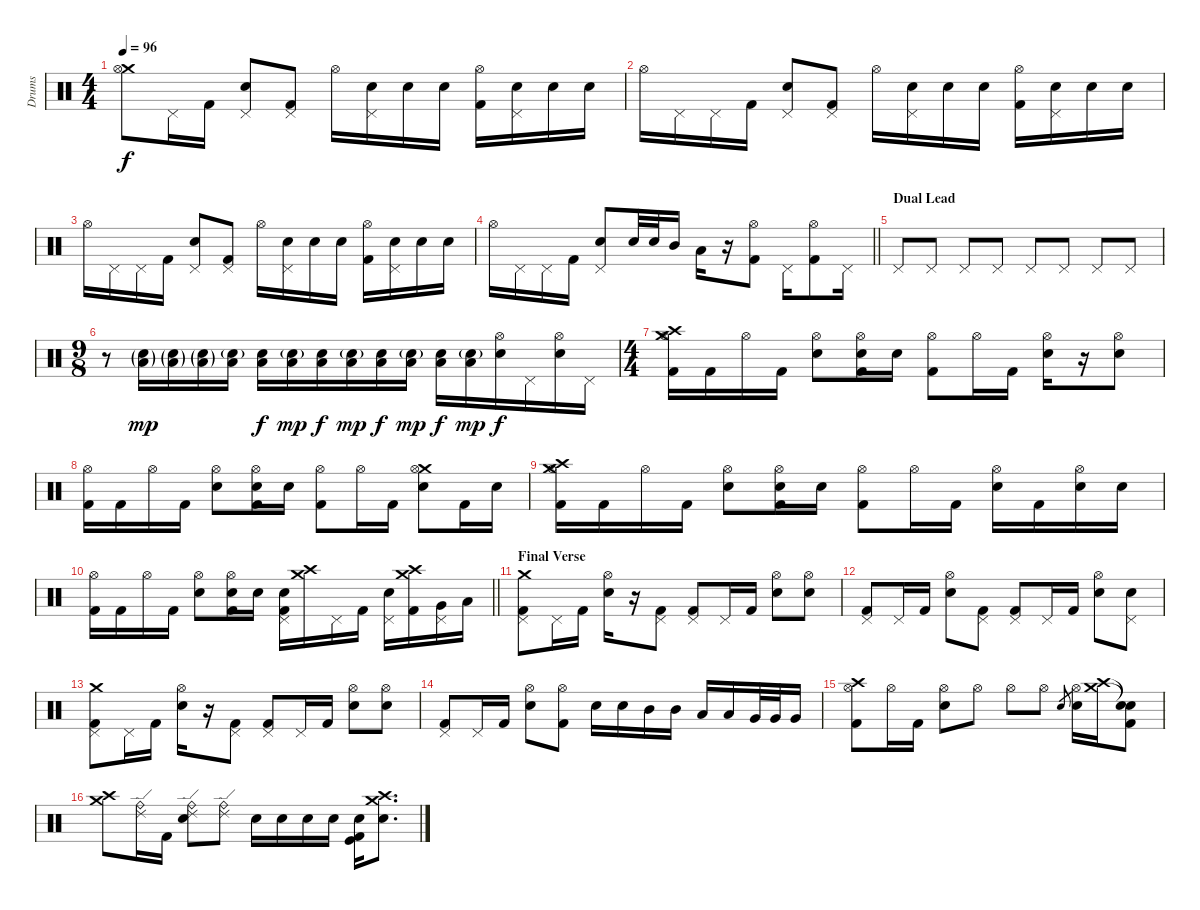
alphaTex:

\track ("Drums" "Drums") {instrument percussion}
\staff {score}
\articulation defaults
\ts (4 4)
\tempo 96
\clef neutral
\ks c
("Crash medium (hit)" "Hi-Hat (open)").8{dy f} "Pedal Hi-Hat (hit)".16 "Kick (hit) 2".16 ("Electric Snare (hit)" "Pedal Hi-Hat (hit)").8 ("Pedal Hi-Hat (hit)" "Kick (hit) 2").8 "Hi-Hat (open)".16 ("Electric Snare (hit)" "Pedal Hi-Hat (hit)").16 "Electric Snare (hit)".16 "Electric Snare (hit)".16 ("Hi-Hat (open)" "Kick (hit) 2").16 ("Electric Snare (hit)" "Pedal Hi-Hat (hit)").16 "Electric Snare (hit)".16 "Electric Snare (hit)".16 |
"Hi-Hat (open)".16 "Pedal Hi-Hat (hit)".16 "Pedal Hi-Hat (hit)".16 "Kick (hit) 2".16 ("Electric Snare (hit)" "Pedal Hi-Hat (hit)").8 ("Pedal Hi-Hat (hit)" "Kick (hit) 2").8 "Hi-Hat (open)".16 ("Electric Snare (hit)" "Pedal Hi-Hat (hit)").16 "Electric Snare (hit)".16 "Electric Snare (hit)".16 ("Hi-Hat (open)" "Kick (hit) 2").16 ("Electric Snare (hit)" "Pedal Hi-Hat (hit)").16 "Electric Snare (hit)".16 "Electric Snare (hit)".16 |
"Hi-Hat (open)".16 "Pedal Hi-Hat (hit)".16 "Pedal Hi-Hat (hit)".16 "Kick (hit) 2".16 ("Electric Snare (hit)" "Pedal Hi-Hat (hit)").8 ("Pedal Hi-Hat (hit)" "Kick (hit) 2").8 "Hi-Hat (open)".16 ("Electric Snare (hit)" "Pedal Hi-Hat (hit)").16 "Electric Snare (hit)".16 "Electric Snare (hit)".16 ("Hi-Hat (open)" "Kick (hit) 2").16 ("Electric Snare (hit)" "Pedal Hi-Hat (hit)").16 "Electric Snare (hit)".16 "Electric Snare (hit)".16 |
\barLineRight lightlight "Hi-Hat (open)".16 "Pedal Hi-Hat (hit)".16 "Pedal Hi-Hat (hit)".16 "Kick (hit) 2".16
("Electric Snare (hit)" "Pedal Hi-Hat (hit)").8 "Electric Snare (hit)".32 "Electric Snare (hit)".32 "Mid Tom (hit)".16 "Low Tom (hit)".16 r.16 ("Hi-Hat (open)" "Kick (hit) 2").8 "Pedal Hi-Hat (hit)".16 ("Hi-Hat (open)" "Kick (hit) 2").8 "Pedal Hi-Hat (hit)".16 |
\section ("" "Dual Lead")
"Pedal Hi-Hat (hit)".8 "Pedal Hi-Hat (hit)".8 "Pedal Hi-Hat (hit)".8 "Pedal Hi-Hat (hit)".8 "Pedal Hi-Hat (hit)".8 "Pedal Hi-Hat (hit)".8 "Pedal Hi-Hat (hit)".8 "Pedal Hi-Hat (hit)".8 |
\ts (9 8)
r.8 ("Electric Snare (hit)"{g} "Low Floor Tom (hit)"{g}).16{dy mp} ("Electric Snare (hit)"{g} "Low Floor Tom (hit)"{g}).16 ("Electric Snare (hit)"{g} "Low Floor Tom (hit)"{g}).16 ("Electric Snare (hit)"{g} "Low Floor Tom (hit)").16 ("Electric Snare (hit)" "Low Floor Tom (hit)").16{dy f} ("Electric Snare (hit)"{g} "Low Floor Tom (hit)").16{dy mp} ("Electric Snare (hit)" "Low Floor Tom (hit)").16{dy f} ("Electric Snare (hit)"{g} "Low Floor Tom (hit)").16{dy mp} ("Electric Snare (hit)" "Low Floor Tom (hit)").16{dy f} ("Electric Snare (hit)"{g} "Low Floor Tom (hit)").16{dy mp} ("Electric Snare (hit)" "Low Floor Tom (hit)").16{dy f} ("Electric Snare (hit)"{g} "Low Floor Tom (hit)").16{dy mp} ("Electric Snare (hit)" "Hi-Hat (open)").16{dy f} "Pedal Hi-Hat (hit)".16 ("Electric Snare (hit)" "Hi-Hat (open)").16 "Pedal Hi-Hat (hit)".16 |
\ts (4 4)
("Crash medium (hit)" "Crash high (hit)" "Hi-Hat (open)" "Kick (hit) 2").16 "Kick (hit) 2".16 "Hi-Hat (open)".16 "Kick (hit) 2".16 ("Hi-Hat (open)" "Electric Snare (hit)").8 ("Hi-Hat (open)" "Electric Snare (hit)" "Kick (hit) 2").16 "Electric Snare (hit)".16 ("Hi-Hat (open)" "Kick (hit) 2").8 "Hi-Hat (open)".16 "Kick (hit) 2".16 ("Hi-Hat (open)" "Electric Snare (hit)").16 r.16 ("Hi-Hat (open)" "Electric Snare (hit)").8 |
("Hi-Hat (open)" "Kick (hit) 2").16 "Kick (hit) 2".16 "Hi-Hat (open)".16 "Kick (hit) 2".16 ("Hi-Hat (open)" "Electric Snare (hit)").8 ("Hi-Hat (open)" "Electric Snare (hit)" "Kick (hit) 2").16 "Electric Snare (hit)".16 ("Hi-Hat (open)" "Kick (hit) 2").8 "Hi-Hat (open)".16 "Kick (hit) 2".16 ("Crash medium (hit)" "Hi-Hat (open)" "Electric Snare (hit)").8 "Kick (hit) 2".16 "Electric Snare (hit)".16 |
("Crash high (hit)" "Crash medium (hit)" "Hi-Hat (open)" "Kick (hit) 2").16 "Kick (hit) 2".16 "Hi-Hat (open)".16 "Kick (hit) 2".16 ("Hi-Hat (open)" "Electric Snare (hit)").8 ("Hi-Hat (open)" "Electric Snare (hit)" "Kick (hit) 2").16 "Electric Snare (hit)".16 ("Hi-Hat (open)" "Kick (hit) 2").8 "Hi-Hat (open)".16 "Kick (hit) 2".16 ("Hi-Hat (open)" "Electric Snare (hit)").16 "Kick (hit) 2".16 ("Hi-Hat (open)" "Electric Snare (hit)").16 "Electric Snare (hit)".16 |
\barLineRight lightlight
("Hi-Hat (open)" "Kick (hit) 2").16 "Kick (hit) 2".16 "Hi-Hat (open)".16 "Kick (hit) 2".16 ("Hi-Hat (open)" "Electric Snare (hit)").8 ("Hi-Hat (open)" "Electric Snare (hit)" "Kick (hit) 2").16 "Electric Snare (hit)".16 ("Pedal Hi-Hat (hit)" "Electric Snare (hit)" "Kick (hit) 2").16 ("Crash medium (hit)" "Crash high (hit)").16 "Pedal Hi-Hat (hit)".16 "Kick (hit) 2".16 ("Pedal Hi-Hat (hit)" "Electric Snare (hit)").16 ("Crash high (hit)" "Crash medium (hit)" "Kick (hit) 2").16 ("Pedal Hi-Hat (hit)" "Very Low Tom (hit)").16 "Low Floor Tom (hit)".16 |
\section ("" "Final Verse")
("Crash medium (hit)" "Pedal Hi-Hat (hit)" "Kick (hit) 2").8 "Pedal Hi-Hat (hit)".16 "Kick (hit) 2".16 ("Electric Snare (hit)" "Hi-Hat (open)").16 r.16 ("Pedal Hi-Hat (hit)" "Kick (hit) 2").8 ("Pedal Hi-Hat (hit)" "Kick (hit) 2").8 "Pedal Hi-Hat (hit)".16 "Kick (hit) 2".16 ("Electric Snare (hit)" "Hi-Hat (open)").8 ("Electric Snare (hit)" "Hi-Hat (open)").8 |
("Pedal Hi-Hat (hit)" "Kick (hit) 2").8 "Pedal Hi-Hat (hit)".16 "Kick (hit) 2".16 ("Electric Snare (hit)" "Hi-Hat (open)").8 ("Pedal Hi-Hat (hit)" "Kick (hit) 2").8 ("Pedal Hi-Hat (hit)" "Kick (hit) 2").8 "Pedal Hi-Hat (hit)".16 "Kick (hit) 2".16 ("Electric Snare (hit)" "Hi-Hat (open)").8 ("Electric Snare (hit)" "Pedal Hi-Hat (hit)").8 |
("Crash medium (hit)" "Pedal Hi-Hat (hit)" "Kick (hit) 2").8 "Pedal Hi-Hat (hit)".16 "Kick (hit) 2".16 ("Electric Snare (hit)" "Hi-Hat (open)").16 r.16 ("Pedal Hi-Hat (hit)" "Kick (hit) 2").8 ("Pedal Hi-Hat (hit)" "Kick (hit) 2").8 "Pedal Hi-Hat (hit)".16 "Kick (hit) 2".16 ("Electric Snare (hit)" "Hi-Hat (open)").8 ("Electric Snare (hit)" "Hi-Hat (open)").8 |
("Pedal Hi-Hat (hit)" "Kick (hit) 2").8 "Pedal Hi-Hat (hit)".16 "Kick (hit) 2".16 ("Electric Snare (hit)" "Hi-Hat (open)").8 ("Hi-Hat (open)" "Kick (hit) 2").8 "Electric Snare (hit)".16 "Electric Snare (hit)".16 "Mid Tom (hit)".16 "Mid Tom (hit)".16 "Low Tom (hit)".16 "Low Tom (hit)".16 "Very Low Tom (hit)".32 "Very Low Tom (hit)".32 "Very Low Tom (hit)".16 |
("Crash high (hit)" "Hi-Hat (open)" "Kick (hit) 2").8 "Hi-Hat (open)".16 "Kick (hit) 2".16 ("Electric Snare (hit)" "Hi-Hat (open)").8 "Hi-Hat (open)".8 "Hi-Hat (open)".8 "Hi-Hat (open)".8 "Electric Snare (hit)".8{gr} ("Electric Snare (hit)" "Hi-Hat (open)").16 ("Crash high (hit)" "Crash medium (hit)").16 ("Snare (hit)"{t} "Snare (hit)"{t} "Kick (hit) 2").8 |
("Crash high (hit)" "Crash medium (hit)").8 ("Ride (bell)" "Ride (edge) 2").16 "Kick (hit) 2".16 ("Ride (bell)" "Ride (edge) 2" "Electric Snare (hit)").8 ("Ride (bell)" "Ride (edge) 2").8 "Electric Snare (hit)".16 "Electric Snare (hit)".16 "Electric Snare (hit)".16 "Electric Snare (hit)".16 ("Electric Snare (hit)" "Kick (hit)" "Kick (hit) 2").16 ("Crash medium (hit)" "Crash high (hit)" "Electric Snare (hit)").8{d}
